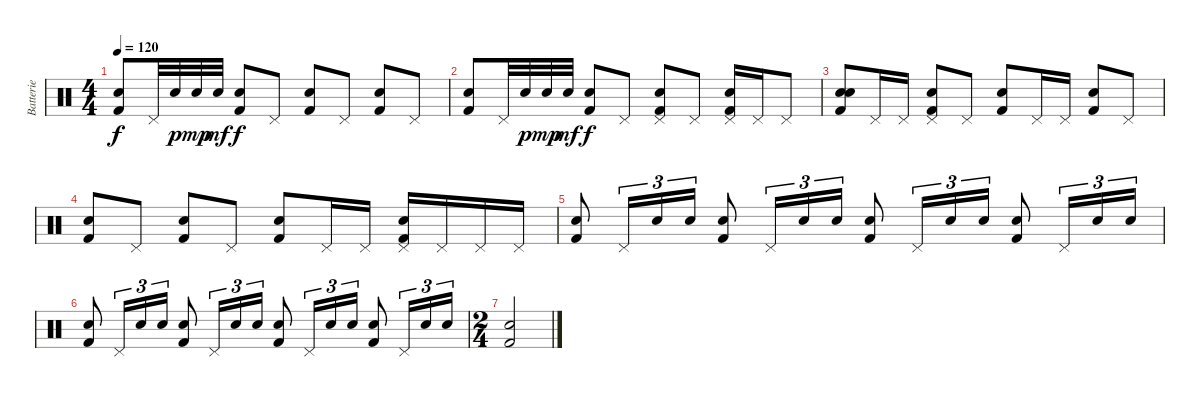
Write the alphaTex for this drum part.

\track ("Batterie" "Batterie") {instrument percussion}
\staff {score}
\articulation defaults
\ts (4 4)
\tempo 120
\clef neutral
\ks c
("Electric Snare (hit)" "Kick (hit) 2").8{dy f} "Pedal Hi-Hat (hit)".32 "Electric Snare (hit)".32{dy p} "Electric Snare (hit)".32{dy mp} "Electric Snare (hit)".32{dy mf} ("Electric Snare (hit)" "Kick (hit) 2").8{dy f} "Pedal Hi-Hat (hit)".8 ("Electric Snare (hit)" "Kick (hit) 2").8 "Pedal Hi-Hat (hit)".8 ("Electric Snare (hit)" "Kick (hit) 2").8 "Pedal Hi-Hat (hit)".8 |
("Electric Snare (hit)" "Kick (hit) 2").8 "Pedal Hi-Hat (hit)".32 "Electric Snare (hit)".32{dy p} "Electric Snare (hit)".32{dy mp} "Electric Snare (hit)".32{dy mf} ("Electric Snare (hit)" "Kick (hit) 2").8{dy f} "Pedal Hi-Hat (hit)".8 ("Pedal Hi-Hat (hit)" "Electric Snare (hit)" "Kick (hit) 2").8 "Pedal Hi-Hat (hit)".8 ("Pedal Hi-Hat (hit)" "Electric Snare (hit)" "Kick (hit) 2").16 "Pedal Hi-Hat (hit)".16 "Pedal Hi-Hat (hit)".8 |
("Electric Snare (hit)" "Electric Snare (hit)" "Kick (hit) 2").8 "Pedal Hi-Hat (hit)".16 "Pedal Hi-Hat (hit)".16 ("Pedal Hi-Hat (hit)" "Electric Snare (hit)" "Kick (hit) 2").8 "Pedal Hi-Hat (hit)".8 ("Electric Snare (hit)" "Kick (hit) 2").8 "Pedal Hi-Hat (hit)".16 "Pedal Hi-Hat (hit)".16 ("Electric Snare (hit)" "Kick (hit) 2").8 "Pedal Hi-Hat (hit)".8 |
("Electric Snare (hit)" "Kick (hit) 2").8 "Pedal Hi-Hat (hit)".8 ("Electric Snare (hit)" "Kick (hit) 2").8 "Pedal Hi-Hat (hit)".8 ("Electric Snare (hit)" "Kick (hit) 2").8 "Pedal Hi-Hat (hit)".16 "Pedal Hi-Hat (hit)".16 ("Pedal Hi-Hat (hit)" "Electric Snare (hit)" "Kick (hit) 2").16 "Pedal Hi-Hat (hit)".16 "Pedal Hi-Hat (hit)".16 "Pedal Hi-Hat (hit)".16 |
("Electric Snare (hit)" "Kick (hit) 2").8 "Pedal Hi-Hat (hit)".16{tu (3 2)} "Electric Snare (hit)".16{tu (3 2)} "Electric Snare (hit)".16{tu (3 2)} ("Electric Snare (hit)" "Kick (hit) 2").8 "Pedal Hi-Hat (hit)".16{tu (3 2)} "Electric Snare (hit)".16{tu (3 2)} "Electric Snare (hit)".16{tu (3 2)} ("Electric Snare (hit)" "Kick (hit) 2").8 "Pedal Hi-Hat (hit)".16{tu (3 2)} "Electric Snare (hit)".16{tu (3 2)} "Electric Snare (hit)".16{tu (3 2)} ("Electric Snare (hit)" "Kick (hit) 2").8 "Pedal Hi-Hat (hit)".16{tu (3 2)} "Electric Snare (hit)".16{tu (3 2)} "Electric Snare (hit)".16{tu (3 2)} |
("Electric Snare (hit)" "Kick (hit) 2").8 "Pedal Hi-Hat (hit)".16{tu (3 2)} "Electric Snare (hit)".16{tu (3 2)} "Electric Snare (hit)".16{tu (3 2)} ("Electric Snare (hit)" "Kick (hit) 2").8 "Pedal Hi-Hat (hit)".16{tu (3 2)} "Electric Snare (hit)".16{tu (3 2)} "Electric Snare (hit)".16{tu (3 2)} ("Electric Snare (hit)" "Kick (hit) 2").8 "Pedal Hi-Hat (hit)".16{tu (3 2)} "Electric Snare (hit)".16{tu (3 2)} "Electric Snare (hit)".16{tu (3 2)} ("Electric Snare (hit)" "Kick (hit) 2").8 "Pedal Hi-Hat (hit)".16{tu (3 2)} "Electric Snare (hit)".16{tu (3 2)} "Electric Snare (hit)".16{tu (3 2)} |
\ts (2 4)
("Electric Snare (hit)" "Kick (hit) 2").2
